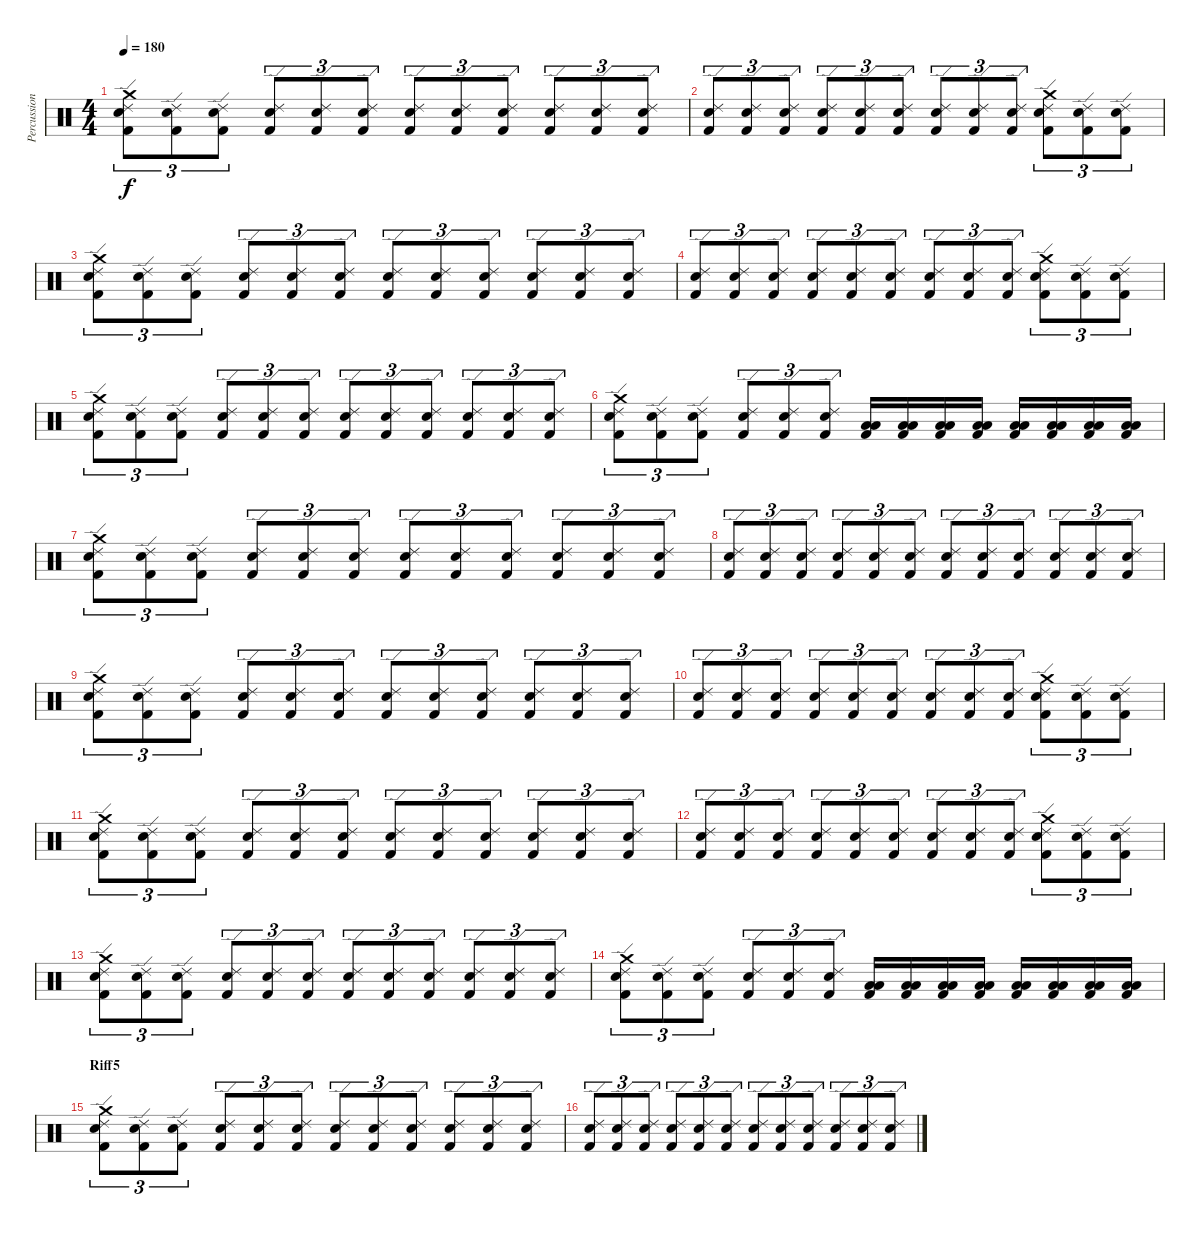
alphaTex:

\track ("Percussioni" "Percussion") {instrument percussion}
\staff {score}
\articulation defaults
\ts (4 4)
\tempo 180
\clef neutral
\ks c
("Crash medium (hit)" "Ride (edge) 2" "Snare (hit) 2" "Kick (hit) 2").8{tu (3 2) dy f} ("Ride (edge) 2" "Snare (hit) 2" "Kick (hit) 2").8{tu (3 2)} ("Ride (edge) 2" "Snare (hit) 2" "Kick (hit) 2").8{tu (3 2)} ("Ride (edge) 2" "Snare (hit) 2" "Kick (hit) 2").8{tu (3 2)} ("Ride (edge) 2" "Snare (hit) 2" "Kick (hit) 2").8{tu (3 2)} ("Ride (edge) 2" "Snare (hit) 2" "Kick (hit) 2").8{tu (3 2)} ("Ride (edge) 2" "Snare (hit) 2" "Kick (hit) 2").8{tu (3 2)} ("Ride (edge) 2" "Snare (hit) 2" "Kick (hit) 2").8{tu (3 2)} ("Ride (edge) 2" "Snare (hit) 2" "Kick (hit) 2").8{tu (3 2)} ("Ride (edge) 2" "Snare (hit) 2" "Kick (hit) 2").8{tu (3 2)} ("Ride (edge) 2" "Snare (hit) 2" "Kick (hit) 2").8{tu (3 2)} ("Ride (edge) 2" "Snare (hit) 2" "Kick (hit) 2").8{tu (3 2)} |
("Ride (edge) 2" "Snare (hit) 2" "Kick (hit) 2").8{tu (3 2)} ("Ride (edge) 2" "Snare (hit) 2" "Kick (hit) 2").8{tu (3 2)} ("Ride (edge) 2" "Snare (hit) 2" "Kick (hit) 2").8{tu (3 2)} ("Ride (edge) 2" "Snare (hit) 2" "Kick (hit) 2").8{tu (3 2)} ("Ride (edge) 2" "Snare (hit) 2" "Kick (hit) 2").8{tu (3 2)} ("Ride (edge) 2" "Snare (hit) 2" "Kick (hit) 2").8{tu (3 2)} ("Ride (edge) 2" "Snare (hit) 2" "Kick (hit) 2").8{tu (3 2)} ("Ride (edge) 2" "Snare (hit) 2" "Kick (hit) 2").8{tu (3 2)} ("Ride (edge) 2" "Snare (hit) 2" "Kick (hit) 2").8{tu (3 2)} ("Crash medium (hit)" "Ride (edge) 2" "Snare (hit) 2" "Kick (hit) 2").8{tu (3 2)} ("Ride (edge) 2" "Snare (hit) 2" "Kick (hit) 2").8{tu (3 2)} ("Ride (edge) 2" "Snare (hit) 2" "Kick (hit) 2").8{tu (3 2)} |
("Crash medium (hit)" "Ride (edge) 2" "Snare (hit) 2" "Kick (hit) 2").8{tu (3 2)} ("Ride (edge) 2" "Snare (hit) 2" "Kick (hit) 2").8{tu (3 2)} ("Ride (edge) 2" "Snare (hit) 2" "Kick (hit) 2").8{tu (3 2)} ("Ride (edge) 2" "Snare (hit) 2" "Kick (hit) 2").8{tu (3 2)} ("Ride (edge) 2" "Snare (hit) 2" "Kick (hit) 2").8{tu (3 2)} ("Ride (edge) 2" "Snare (hit) 2" "Kick (hit) 2").8{tu (3 2)} ("Ride (edge) 2" "Snare (hit) 2" "Kick (hit) 2").8{tu (3 2)} ("Ride (edge) 2" "Snare (hit) 2" "Kick (hit) 2").8{tu (3 2)} ("Ride (edge) 2" "Snare (hit) 2" "Kick (hit) 2").8{tu (3 2)} ("Ride (edge) 2" "Snare (hit) 2" "Kick (hit) 2").8{tu (3 2)} ("Ride (edge) 2" "Snare (hit) 2" "Kick (hit) 2").8{tu (3 2)} ("Ride (edge) 2" "Snare (hit) 2" "Kick (hit) 2").8{tu (3 2)} |
("Ride (edge) 2" "Snare (hit) 2" "Kick (hit) 2").8{tu (3 2)} ("Ride (edge) 2" "Snare (hit) 2" "Kick (hit) 2").8{tu (3 2)} ("Ride (edge) 2" "Snare (hit) 2" "Kick (hit) 2").8{tu (3 2)} ("Ride (edge) 2" "Snare (hit) 2" "Kick (hit) 2").8{tu (3 2)} ("Ride (edge) 2" "Snare (hit) 2" "Kick (hit) 2").8{tu (3 2)} ("Ride (edge) 2" "Snare (hit) 2" "Kick (hit) 2").8{tu (3 2)} ("Ride (edge) 2" "Snare (hit) 2" "Kick (hit) 2").8{tu (3 2)} ("Ride (edge) 2" "Snare (hit) 2" "Kick (hit) 2").8{tu (3 2)} ("Ride (edge) 2" "Snare (hit) 2" "Kick (hit) 2").8{tu (3 2)} ("Crash medium (hit)" "Ride (edge) 2" "Snare (hit) 2" "Kick (hit) 2").8{tu (3 2)} ("Ride (edge) 2" "Snare (hit) 2" "Kick (hit) 2").8{tu (3 2)} ("Ride (edge) 2" "Snare (hit) 2" "Kick (hit) 2").8{tu (3 2)} |
("Crash medium (hit)" "Ride (edge) 2" "Snare (hit) 2" "Kick (hit) 2").8{tu (3 2)} ("Ride (edge) 2" "Snare (hit) 2" "Kick (hit) 2").8{tu (3 2)} ("Ride (edge) 2" "Snare (hit) 2" "Kick (hit) 2").8{tu (3 2)} ("Ride (edge) 2" "Snare (hit) 2" "Kick (hit) 2").8{tu (3 2)} ("Ride (edge) 2" "Snare (hit) 2" "Kick (hit) 2").8{tu (3 2)} ("Ride (edge) 2" "Snare (hit) 2" "Kick (hit) 2").8{tu (3 2)} ("Ride (edge) 2" "Snare (hit) 2" "Kick (hit) 2").8{tu (3 2)} ("Ride (edge) 2" "Snare (hit) 2" "Kick (hit) 2").8{tu (3 2)} ("Ride (edge) 2" "Snare (hit) 2" "Kick (hit) 2").8{tu (3 2)} ("Ride (edge) 2" "Snare (hit) 2" "Kick (hit) 2").8{tu (3 2)} ("Ride (edge) 2" "Snare (hit) 2" "Kick (hit) 2").8{tu (3 2)} ("Ride (edge) 2" "Snare (hit) 2" "Kick (hit) 2").8{tu (3 2)} |
("Crash medium (hit)" "Ride (edge) 2" "Snare (hit) 2" "Kick (hit) 2").8{tu (3 2)} ("Ride (edge) 2" "Snare (hit) 2" "Kick (hit) 2").8{tu (3 2)} ("Ride (edge) 2" "Snare (hit) 2" "Kick (hit) 2").8{tu (3 2)} ("Ride (edge) 2" "Snare (hit) 2" "Kick (hit) 2").8{tu (3 2)} ("Ride (edge) 2" "Snare (hit) 2" "Kick (hit) 2").8{tu (3 2)} ("Ride (edge) 2" "Snare (hit) 2" "Kick (hit) 2").8{tu (3 2)} ("Low Tom (hit)" "Low Floor Tom (hit)" "Kick (hit) 2").16 ("Low Tom (hit)" "Low Floor Tom (hit)" "Kick (hit) 2").16 ("Low Tom (hit)" "Low Floor Tom (hit)" "Kick (hit) 2").16 ("Low Tom (hit)" "Low Floor Tom (hit)" "Kick (hit) 2").16 ("Low Tom (hit)" "Low Floor Tom (hit)" "Kick (hit) 2").16 ("Low Tom (hit)" "Low Floor Tom (hit)" "Kick (hit) 2").16 ("Low Tom (hit)" "Low Floor Tom (hit)" "Kick (hit) 2").16 ("Low Tom (hit)" "Low Floor Tom (hit)" "Kick (hit) 2").16 |
("Crash medium (hit)" "Ride (edge) 2" "Snare (hit) 2" "Kick (hit) 2").8{tu (3 2)} ("Ride (edge) 2" "Snare (hit) 2" "Kick (hit) 2").8{tu (3 2)} ("Ride (edge) 2" "Snare (hit) 2" "Kick (hit) 2").8{tu (3 2)} ("Ride (edge) 2" "Snare (hit) 2" "Kick (hit) 2").8{tu (3 2)} ("Ride (edge) 2" "Snare (hit) 2" "Kick (hit) 2").8{tu (3 2)} ("Ride (edge) 2" "Snare (hit) 2" "Kick (hit) 2").8{tu (3 2)} ("Ride (edge) 2" "Snare (hit) 2" "Kick (hit) 2").8{tu (3 2)} ("Ride (edge) 2" "Snare (hit) 2" "Kick (hit) 2").8{tu (3 2)} ("Ride (edge) 2" "Snare (hit) 2" "Kick (hit) 2").8{tu (3 2)} ("Ride (edge) 2" "Snare (hit) 2" "Kick (hit) 2").8{tu (3 2)} ("Ride (edge) 2" "Snare (hit) 2" "Kick (hit) 2").8{tu (3 2)} ("Ride (edge) 2" "Snare (hit) 2" "Kick (hit) 2").8{tu (3 2)} |
("Ride (edge) 2" "Snare (hit) 2" "Kick (hit) 2").8{tu (3 2)} ("Ride (edge) 2" "Snare (hit) 2" "Kick (hit) 2").8{tu (3 2)} ("Ride (edge) 2" "Snare (hit) 2" "Kick (hit) 2").8{tu (3 2)} ("Ride (edge) 2" "Snare (hit) 2" "Kick (hit) 2").8{tu (3 2)} ("Ride (edge) 2" "Snare (hit) 2" "Kick (hit) 2").8{tu (3 2)} ("Ride (edge) 2" "Snare (hit) 2" "Kick (hit) 2").8{tu (3 2)} ("Ride (edge) 2" "Snare (hit) 2" "Kick (hit) 2").8{tu (3 2)} ("Ride (edge) 2" "Snare (hit) 2" "Kick (hit) 2").8{tu (3 2)} ("Ride (edge) 2" "Snare (hit) 2" "Kick (hit) 2").8{tu (3 2)} ("Ride (edge) 2" "Snare (hit) 2" "Kick (hit) 2").8{tu (3 2)} ("Ride (edge) 2" "Snare (hit) 2" "Kick (hit) 2").8{tu (3 2)} ("Ride (edge) 2" "Snare (hit) 2" "Kick (hit) 2").8{tu (3 2)} |
("Crash medium (hit)" "Ride (edge) 2" "Snare (hit) 2" "Kick (hit) 2").8{tu (3 2)} ("Ride (edge) 2" "Snare (hit) 2" "Kick (hit) 2").8{tu (3 2)} ("Ride (edge) 2" "Snare (hit) 2" "Kick (hit) 2").8{tu (3 2)} ("Ride (edge) 2" "Snare (hit) 2" "Kick (hit) 2").8{tu (3 2)} ("Ride (edge) 2" "Snare (hit) 2" "Kick (hit) 2").8{tu (3 2)} ("Ride (edge) 2" "Snare (hit) 2" "Kick (hit) 2").8{tu (3 2)} ("Ride (edge) 2" "Snare (hit) 2" "Kick (hit) 2").8{tu (3 2)} ("Ride (edge) 2" "Snare (hit) 2" "Kick (hit) 2").8{tu (3 2)} ("Ride (edge) 2" "Snare (hit) 2" "Kick (hit) 2").8{tu (3 2)} ("Ride (edge) 2" "Snare (hit) 2" "Kick (hit) 2").8{tu (3 2)} ("Ride (edge) 2" "Snare (hit) 2" "Kick (hit) 2").8{tu (3 2)} ("Ride (edge) 2" "Snare (hit) 2" "Kick (hit) 2").8{tu (3 2)} |
("Ride (edge) 2" "Snare (hit) 2" "Kick (hit) 2").8{tu (3 2)} ("Ride (edge) 2" "Snare (hit) 2" "Kick (hit) 2").8{tu (3 2)} ("Ride (edge) 2" "Snare (hit) 2" "Kick (hit) 2").8{tu (3 2)} ("Ride (edge) 2" "Snare (hit) 2" "Kick (hit) 2").8{tu (3 2)} ("Ride (edge) 2" "Snare (hit) 2" "Kick (hit) 2").8{tu (3 2)} ("Ride (edge) 2" "Snare (hit) 2" "Kick (hit) 2").8{tu (3 2)} ("Ride (edge) 2" "Snare (hit) 2" "Kick (hit) 2").8{tu (3 2)} ("Ride (edge) 2" "Snare (hit) 2" "Kick (hit) 2").8{tu (3 2)} ("Ride (edge) 2" "Snare (hit) 2" "Kick (hit) 2").8{tu (3 2)} ("Crash medium (hit)" "Ride (edge) 2" "Snare (hit) 2" "Kick (hit) 2").8{tu (3 2)} ("Ride (edge) 2" "Snare (hit) 2" "Kick (hit) 2").8{tu (3 2)} ("Ride (edge) 2" "Snare (hit) 2" "Kick (hit) 2").8{tu (3 2)} |
("Crash medium (hit)" "Ride (edge) 2" "Snare (hit) 2" "Kick (hit) 2").8{tu (3 2)} ("Ride (edge) 2" "Snare (hit) 2" "Kick (hit) 2").8{tu (3 2)} ("Ride (edge) 2" "Snare (hit) 2" "Kick (hit) 2").8{tu (3 2)} ("Ride (edge) 2" "Snare (hit) 2" "Kick (hit) 2").8{tu (3 2)} ("Ride (edge) 2" "Snare (hit) 2" "Kick (hit) 2").8{tu (3 2)} ("Ride (edge) 2" "Snare (hit) 2" "Kick (hit) 2").8{tu (3 2)} ("Ride (edge) 2" "Snare (hit) 2" "Kick (hit) 2").8{tu (3 2)} ("Ride (edge) 2" "Snare (hit) 2" "Kick (hit) 2").8{tu (3 2)} ("Ride (edge) 2" "Snare (hit) 2" "Kick (hit) 2").8{tu (3 2)} ("Ride (edge) 2" "Snare (hit) 2" "Kick (hit) 2").8{tu (3 2)} ("Ride (edge) 2" "Snare (hit) 2" "Kick (hit) 2").8{tu (3 2)} ("Ride (edge) 2" "Snare (hit) 2" "Kick (hit) 2").8{tu (3 2)} |
("Ride (edge) 2" "Snare (hit) 2" "Kick (hit) 2").8{tu (3 2)} ("Ride (edge) 2" "Snare (hit) 2" "Kick (hit) 2").8{tu (3 2)} ("Ride (edge) 2" "Snare (hit) 2" "Kick (hit) 2").8{tu (3 2)} ("Ride (edge) 2" "Snare (hit) 2" "Kick (hit) 2").8{tu (3 2)} ("Ride (edge) 2" "Snare (hit) 2" "Kick (hit) 2").8{tu (3 2)} ("Ride (edge) 2" "Snare (hit) 2" "Kick (hit) 2").8{tu (3 2)} ("Ride (edge) 2" "Snare (hit) 2" "Kick (hit) 2").8{tu (3 2)} ("Ride (edge) 2" "Snare (hit) 2" "Kick (hit) 2").8{tu (3 2)} ("Ride (edge) 2" "Snare (hit) 2" "Kick (hit) 2").8{tu (3 2)} ("Crash medium (hit)" "Ride (edge) 2" "Snare (hit) 2" "Kick (hit) 2").8{tu (3 2)} ("Ride (edge) 2" "Snare (hit) 2" "Kick (hit) 2").8{tu (3 2)} ("Ride (edge) 2" "Snare (hit) 2" "Kick (hit) 2").8{tu (3 2)} |
("Crash medium (hit)" "Ride (edge) 2" "Snare (hit) 2" "Kick (hit) 2").8{tu (3 2)} ("Ride (edge) 2" "Snare (hit) 2" "Kick (hit) 2").8{tu (3 2)} ("Ride (edge) 2" "Snare (hit) 2" "Kick (hit) 2").8{tu (3 2)} ("Ride (edge) 2" "Snare (hit) 2" "Kick (hit) 2").8{tu (3 2)} ("Ride (edge) 2" "Snare (hit) 2" "Kick (hit) 2").8{tu (3 2)} ("Ride (edge) 2" "Snare (hit) 2" "Kick (hit) 2").8{tu (3 2)} ("Ride (edge) 2" "Snare (hit) 2" "Kick (hit) 2").8{tu (3 2)} ("Ride (edge) 2" "Snare (hit) 2" "Kick (hit) 2").8{tu (3 2)} ("Ride (edge) 2" "Snare (hit) 2" "Kick (hit) 2").8{tu (3 2)} ("Ride (edge) 2" "Snare (hit) 2" "Kick (hit) 2").8{tu (3 2)} ("Ride (edge) 2" "Snare (hit) 2" "Kick (hit) 2").8{tu (3 2)} ("Ride (edge) 2" "Snare (hit) 2" "Kick (hit) 2").8{tu (3 2)} |
("Crash medium (hit)" "Ride (edge) 2" "Snare (hit) 2" "Kick (hit) 2").8{tu (3 2)} ("Ride (edge) 2" "Snare (hit) 2" "Kick (hit) 2").8{tu (3 2)} ("Ride (edge) 2" "Snare (hit) 2" "Kick (hit) 2").8{tu (3 2)} ("Ride (edge) 2" "Snare (hit) 2" "Kick (hit) 2").8{tu (3 2)} ("Ride (edge) 2" "Snare (hit) 2" "Kick (hit) 2").8{tu (3 2)} ("Ride (edge) 2" "Snare (hit) 2" "Kick (hit) 2").8{tu (3 2)} ("Low Tom (hit)" "Low Floor Tom (hit)" "Kick (hit) 2").16 ("Low Tom (hit)" "Low Floor Tom (hit)" "Kick (hit) 2").16 ("Low Tom (hit)" "Low Floor Tom (hit)" "Kick (hit) 2").16 ("Low Tom (hit)" "Low Floor Tom (hit)" "Kick (hit) 2").16 ("Low Tom (hit)" "Low Floor Tom (hit)" "Kick (hit) 2").16 ("Low Tom (hit)" "Low Floor Tom (hit)" "Kick (hit) 2").16 ("Low Tom (hit)" "Low Floor Tom (hit)" "Kick (hit) 2").16 ("Low Tom (hit)" "Low Floor Tom (hit)" "Kick (hit) 2").16 |
\section ("" "Riff5")
("Crash medium (hit)" "Ride (edge) 2" "Snare (hit) 2" "Kick (hit) 2").8{tu (3 2)} ("Ride (edge) 2" "Snare (hit) 2" "Kick (hit) 2").8{tu (3 2)} ("Ride (edge) 2" "Snare (hit) 2" "Kick (hit) 2").8{tu (3 2)} ("Ride (edge) 2" "Snare (hit) 2" "Kick (hit) 2").8{tu (3 2)} ("Ride (edge) 2" "Snare (hit) 2" "Kick (hit) 2").8{tu (3 2)} ("Ride (edge) 2" "Snare (hit) 2" "Kick (hit) 2").8{tu (3 2)} ("Ride (edge) 2" "Snare (hit) 2" "Kick (hit) 2").8{tu (3 2)} ("Ride (edge) 2" "Snare (hit) 2" "Kick (hit) 2").8{tu (3 2)} ("Ride (edge) 2" "Snare (hit) 2" "Kick (hit) 2").8{tu (3 2)} ("Ride (edge) 2" "Snare (hit) 2" "Kick (hit) 2").8{tu (3 2)} ("Ride (edge) 2" "Snare (hit) 2" "Kick (hit) 2").8{tu (3 2)} ("Ride (edge) 2" "Snare (hit) 2" "Kick (hit) 2").8{tu (3 2)} |
("Ride (edge) 2" "Snare (hit) 2" "Kick (hit) 2").8{tu (3 2)} ("Ride (edge) 2" "Snare (hit) 2" "Kick (hit) 2").8{tu (3 2)} ("Ride (edge) 2" "Snare (hit) 2" "Kick (hit) 2").8{tu (3 2)} ("Ride (edge) 2" "Snare (hit) 2" "Kick (hit) 2").8{tu (3 2)} ("Ride (edge) 2" "Snare (hit) 2" "Kick (hit) 2").8{tu (3 2)} ("Ride (edge) 2" "Snare (hit) 2" "Kick (hit) 2").8{tu (3 2)} ("Ride (edge) 2" "Snare (hit) 2" "Kick (hit) 2").8{tu (3 2)} ("Ride (edge) 2" "Snare (hit) 2" "Kick (hit) 2").8{tu (3 2)} ("Ride (edge) 2" "Snare (hit) 2" "Kick (hit) 2").8{tu (3 2)} ("Ride (edge) 2" "Snare (hit) 2" "Kick (hit) 2").8{tu (3 2)} ("Ride (edge) 2" "Snare (hit) 2" "Kick (hit) 2").8{tu (3 2)} ("Ride (edge) 2" "Snare (hit) 2" "Kick (hit) 2").8{tu (3 2)}
